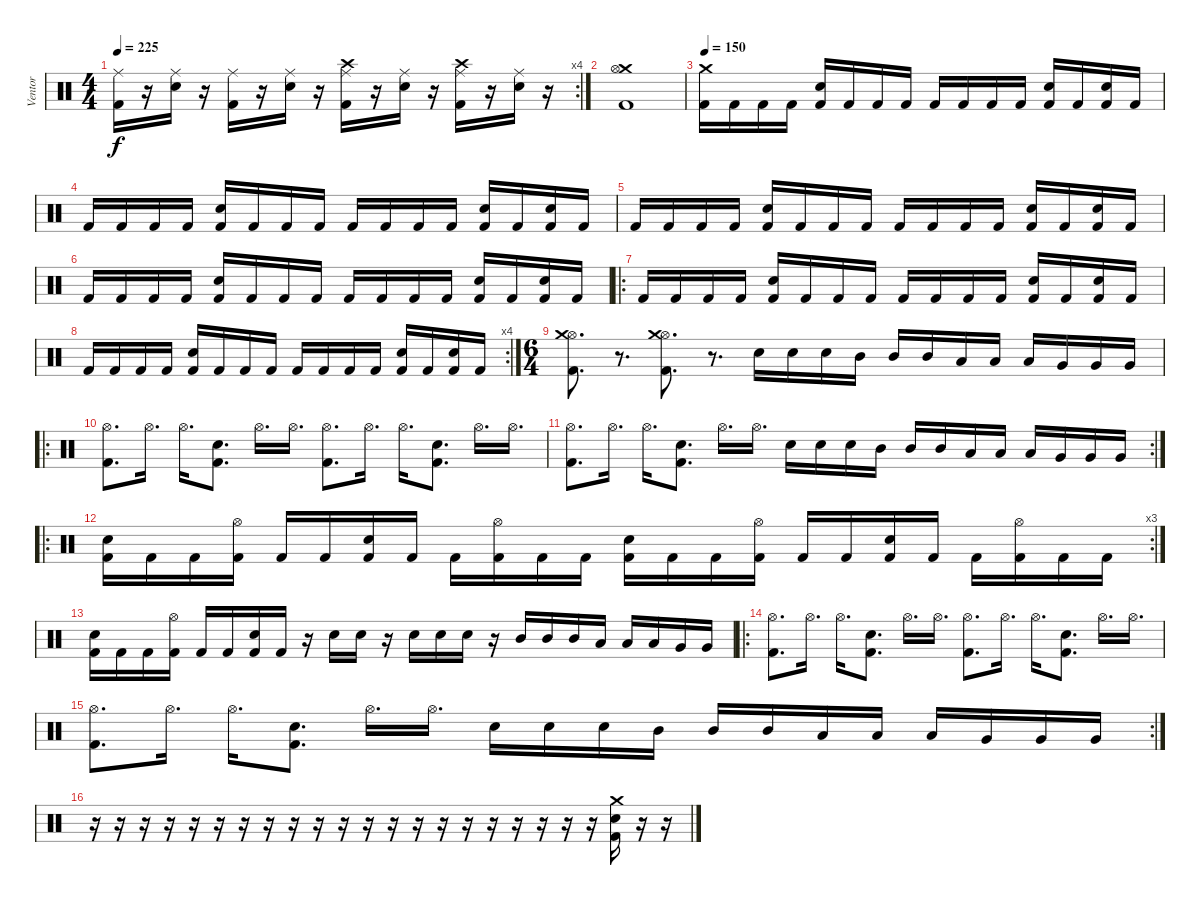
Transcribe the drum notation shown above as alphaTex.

\track ("Ventor" "Ventor") {instrument percussion}
\staff {score}
\articulation defaults
\rc 4
\ts (4 4)
\tempo 225
\clef neutral
\ks c
("Ride (middle)" "Kick (hit) 2").16{dy f} r.16 ("Ride (middle)" "Snare (hit) 2").16 r.16 ("Ride (middle)" "Kick (hit) 2").16 r.16 ("Ride (middle)" "Snare (hit) 2").16 r.16 ("Crash high (hit)" "Ride (middle)" "Kick (hit) 2").16 r.16 ("Ride (middle)" "Snare (hit) 2").16 r.16 ("Crash high (hit)" "Ride (middle)" "Kick (hit) 2").16 r.16 ("Ride (middle)" "Snare (hit) 2").16 r.16 |
("Crash medium (hit)" "Hi-Hat (open)" "Kick (hit) 2").1 |
\tempo 150
("Crash medium (hit)" "Kick (hit) 2").16 "Kick (hit) 2".16 "Kick (hit) 2".16 "Kick (hit) 2".16 ("Snare (hit) 2" "Kick (hit) 2").16 "Kick (hit) 2".16 "Kick (hit) 2".16 "Kick (hit) 2".16 "Kick (hit) 2".16 "Kick (hit) 2".16 "Kick (hit) 2".16 "Kick (hit) 2".16 ("Snare (hit) 2" "Kick (hit) 2").16 "Kick (hit) 2".16 ("Snare (hit) 2" "Kick (hit) 2").16 "Kick (hit) 2".16 |
"Kick (hit) 2".16 "Kick (hit) 2".16 "Kick (hit) 2".16 "Kick (hit) 2".16 ("Snare (hit) 2" "Kick (hit) 2").16 "Kick (hit) 2".16 "Kick (hit) 2".16 "Kick (hit) 2".16 "Kick (hit) 2".16 "Kick (hit) 2".16 "Kick (hit) 2".16 "Kick (hit) 2".16 ("Snare (hit) 2" "Kick (hit) 2").16 "Kick (hit) 2".16 ("Snare (hit) 2" "Kick (hit) 2").16 "Kick (hit) 2".16 |
"Kick (hit) 2".16 "Kick (hit) 2".16 "Kick (hit) 2".16 "Kick (hit) 2".16 ("Snare (hit) 2" "Kick (hit) 2").16 "Kick (hit) 2".16 "Kick (hit) 2".16 "Kick (hit) 2".16 "Kick (hit) 2".16 "Kick (hit) 2".16 "Kick (hit) 2".16 "Kick (hit) 2".16 ("Snare (hit) 2" "Kick (hit) 2").16 "Kick (hit) 2".16 ("Snare (hit) 2" "Kick (hit) 2").16 "Kick (hit) 2".16 |
"Kick (hit) 2".16 "Kick (hit) 2".16 "Kick (hit) 2".16 "Kick (hit) 2".16 ("Snare (hit) 2" "Kick (hit) 2").16 "Kick (hit) 2".16 "Kick (hit) 2".16 "Kick (hit) 2".16 "Kick (hit) 2".16 "Kick (hit) 2".16 "Kick (hit) 2".16 "Kick (hit) 2".16 ("Snare (hit) 2" "Kick (hit) 2").16 "Kick (hit) 2".16 ("Snare (hit) 2" "Kick (hit) 2").16 "Kick (hit) 2".16 |
\ro "Kick (hit) 2".16 "Kick (hit) 2".16 "Kick (hit) 2".16 "Kick (hit) 2".16
("Snare (hit) 2" "Kick (hit) 2").16 "Kick (hit) 2".16 "Kick (hit) 2".16 "Kick (hit) 2".16 "Kick (hit) 2".16 "Kick (hit) 2".16 "Kick (hit) 2".16 "Kick (hit) 2".16 ("Snare (hit) 2" "Kick (hit) 2").16 "Kick (hit) 2".16 ("Snare (hit) 2" "Kick (hit) 2").16 "Kick (hit) 2".16 |
\rc 4 "Kick (hit) 2".16 "Kick (hit) 2".16 "Kick (hit) 2".16 "Kick (hit) 2".16
("Snare (hit) 2" "Kick (hit) 2").16 "Kick (hit) 2".16 "Kick (hit) 2".16 "Kick (hit) 2".16 "Kick (hit) 2".16 "Kick (hit) 2".16 "Kick (hit) 2".16 "Kick (hit) 2".16 ("Snare (hit) 2" "Kick (hit) 2").16 "Kick (hit) 2".16 ("Snare (hit) 2" "Kick (hit) 2").16 "Kick (hit) 2".16 |
\ts (6 4)
("Hi-Hat (open)" "Crash medium (hit)" "Kick (hit) 2").8{d} r.8{d} ("Hi-Hat (open)" "Crash medium (hit)" "Kick (hit) 2").8{d} r.8{d} "Snare (hit) 2".16 "Snare (hit) 2".16 "Snare (hit) 2".16 "Mid Tom (hit)".16 "Mid Tom (hit)".16 "Mid Tom (hit)".16 "Low Tom (hit)".16 "Low Tom (hit)".16 "Low Tom (hit)".16 "Very Low Tom (hit)".16 "Very Low Tom (hit)".16 "Very Low Tom (hit)".16 |
\ro
("Hi-Hat (open)" "Kick (hit) 2").8{d} "Hi-Hat (open)".16{d} "Hi-Hat (open)".16{d} ("Snare (hit) 2" "Kick (hit) 2").8{d} "Hi-Hat (open)".16{d} "Hi-Hat (open)".16{d} ("Hi-Hat (open)" "Kick (hit) 2").8{d} "Hi-Hat (open)".16{d} "Hi-Hat (open)".16{d} ("Snare (hit) 2" "Kick (hit) 2").8{d} "Hi-Hat (open)".16{d} "Hi-Hat (open)".16{d} |
\rc 2
("Hi-Hat (open)" "Kick (hit) 2").8{d} "Hi-Hat (open)".16{d} "Hi-Hat (open)".16{d} ("Snare (hit) 2" "Kick (hit) 2").8{d} "Hi-Hat (open)".16{d} "Hi-Hat (open)".16{d} "Snare (hit) 2".16 "Snare (hit) 2".16 "Snare (hit) 2".16 "Mid Tom (hit)".16 "Mid Tom (hit)".16 "Mid Tom (hit)".16 "Low Tom (hit)".16 "Low Tom (hit)".16 "Low Tom (hit)".16 "Very Low Tom (hit)".16 "Very Low Tom (hit)".16 "Very Low Tom (hit)".16 |
\ro
\rc 3
("Snare (hit) 2" "Kick (hit) 2").16 "Kick (hit) 2".16 "Kick (hit) 2".16 ("Hi-Hat (open)" "Kick (hit) 2").16 "Kick (hit) 2".16 "Kick (hit) 2".16 ("Snare (hit) 2" "Kick (hit) 2").16 "Kick (hit) 2".16 "Kick (hit) 2".16 ("Hi-Hat (open)" "Kick (hit) 2").16 "Kick (hit) 2".16 "Kick (hit) 2".16 ("Snare (hit) 2" "Kick (hit) 2").16 "Kick (hit) 2".16 "Kick (hit) 2".16 ("Hi-Hat (open)" "Kick (hit) 2").16 "Kick (hit) 2".16 "Kick (hit) 2".16 ("Snare (hit) 2" "Kick (hit) 2").16 "Kick (hit) 2".16 "Kick (hit) 2".16 ("Hi-Hat (open)" "Kick (hit) 2").16 "Kick (hit) 2".16 "Kick (hit) 2".16 |
("Snare (hit) 2" "Kick (hit) 2").16 "Kick (hit) 2".16 "Kick (hit) 2".16 ("Hi-Hat (open)" "Kick (hit) 2").16 "Kick (hit) 2".16 "Kick (hit) 2".16 ("Snare (hit) 2" "Kick (hit) 2").16 "Kick (hit) 2".16 r.16 "Snare (hit) 2".16 "Snare (hit) 2".16 r.16 "Snare (hit) 2".16 "Snare (hit) 2".16 "Snare (hit) 2".16 r.16 "Mid Tom (hit)".16 "Mid Tom (hit)".16 "Mid Tom (hit)".16 "Low Tom (hit)".16 "Low Tom (hit)".16 "Low Tom (hit)".16 "Very Low Tom (hit)".16 "Very Low Tom (hit)".16 |
\ro
("Hi-Hat (open)" "Kick (hit) 2").8{d} "Hi-Hat (open)".16{d} "Hi-Hat (open)".16{d} ("Snare (hit) 2" "Kick (hit) 2").8{d} "Hi-Hat (open)".16{d} "Hi-Hat (open)".16{d} ("Hi-Hat (open)" "Kick (hit) 2").8{d} "Hi-Hat (open)".16{d} "Hi-Hat (open)".16{d} ("Snare (hit) 2" "Kick (hit) 2").8{d} "Hi-Hat (open)".16{d} "Hi-Hat (open)".16{d} |
\rc 2
("Hi-Hat (open)" "Kick (hit) 2").8{d} "Hi-Hat (open)".16{d} "Hi-Hat (open)".16{d} ("Snare (hit) 2" "Kick (hit) 2").8{d} "Hi-Hat (open)".16{d} "Hi-Hat (open)".16{d} "Snare (hit) 2".16 "Snare (hit) 2".16 "Snare (hit) 2".16 "Mid Tom (hit)".16 "Mid Tom (hit)".16 "Mid Tom (hit)".16 "Low Tom (hit)".16 "Low Tom (hit)".16 "Low Tom (hit)".16 "Very Low Tom (hit)".16 "Very Low Tom (hit)".16 "Very Low Tom (hit)".16 |
r.16 r.16 r.16 r.16 r.16 r.16 r.16 r.16 r.16 r.16 r.16 r.16 r.16 r.16 r.16 r.16 r.16 r.16 r.16 r.16 r.16 ("Crash medium (hit)" "Snare (hit) 2" "Kick (hit) 2").16 r.16 r.16
